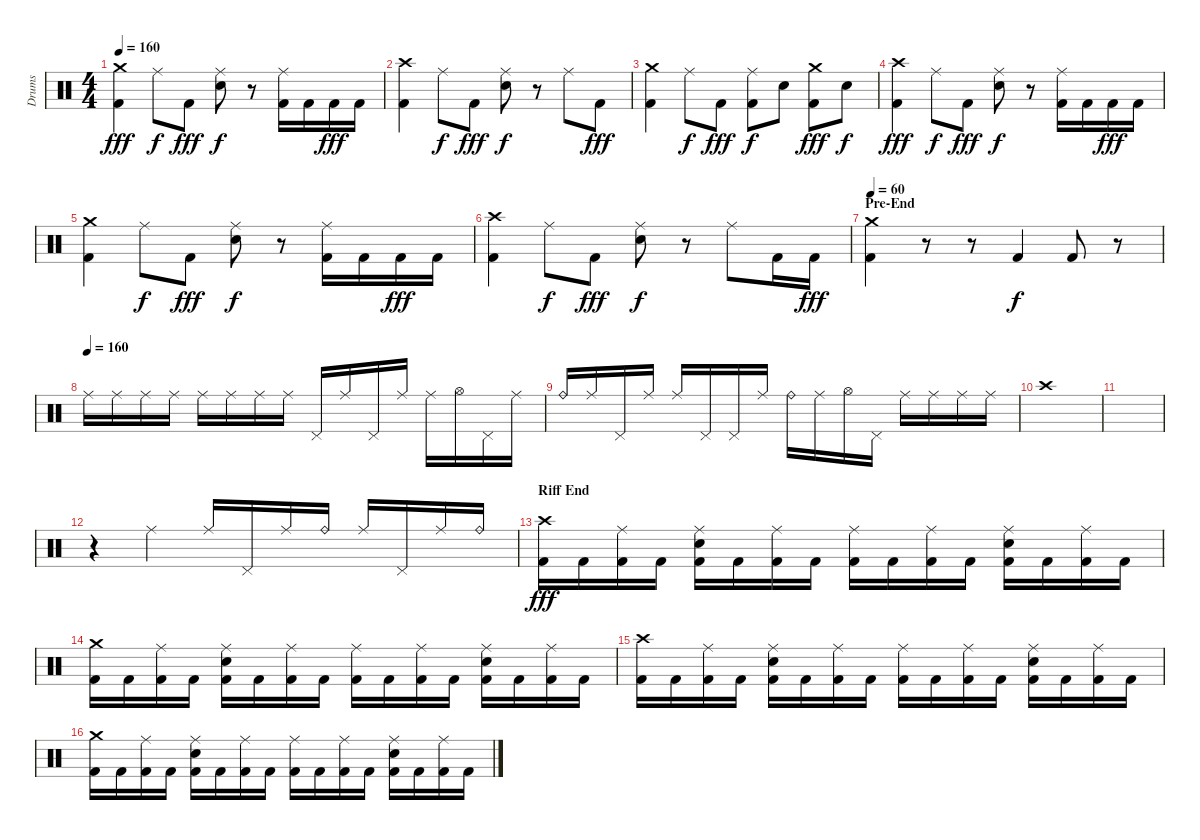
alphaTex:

\track ("Drums" "Drums") {instrument percussion}
\staff {score}
\articulation defaults
\ts (4 4)
\tempo 160
\clef neutral
\ks c
("Crash medium (hit)" "Kick (hit) 2").4{dy fff} "Ride (middle)".8{dy f} "Kick (hit) 2".8{dy fff} ("Ride (middle)" "Electric Snare (hit)").8{dy f} r.8 ("Ride (middle)" "Kick (hit) 2").16 "Kick (hit) 2".16 "Kick (hit) 2".16{dy fff} "Kick (hit) 2".16 |
("Crash high (hit)" "Kick (hit) 2").4 "Ride (middle)".8{dy f} "Kick (hit) 2".8{dy fff} ("Ride (middle)" "Electric Snare (hit)").8{dy f} r.8 "Ride (middle)".8 "Kick (hit) 2".8{dy fff} |
("Crash medium (hit)" "Kick (hit) 2").4 "Ride (middle)".8{dy f} "Kick (hit) 2".8{dy fff} ("Ride (middle)" "Kick (hit) 2").8{dy f} "Electric Snare (hit)".8 ("Crash medium (hit)" "Kick (hit) 2").8{dy fff} "Electric Snare (hit)".8{dy f} |
("Crash high (hit)" "Kick (hit) 2").4{dy fff} "Ride (middle)".8{dy f} "Kick (hit) 2".8{dy fff} ("Ride (middle)" "Electric Snare (hit)").8{dy f} r.8 ("Ride (middle)" "Kick (hit) 2").16 "Kick (hit) 2".16 "Kick (hit) 2".16{dy fff} "Kick (hit) 2".16 |
("Crash medium (hit)" "Kick (hit) 2").4 "Ride (middle)".8{dy f} "Kick (hit) 2".8{dy fff} ("Ride (middle)" "Electric Snare (hit)").8{dy f} r.8 ("Ride (middle)" "Kick (hit) 2").16 "Kick (hit) 2".16 "Kick (hit) 2".16{dy fff} "Kick (hit) 2".16 |
("Crash high (hit)" "Kick (hit) 2").4 "Ride (middle)".8{dy f} "Kick (hit) 2".8{dy fff} ("Ride (middle)" "Electric Snare (hit)").8{dy f} r.8 "Ride (middle)".8 "Kick (hit) 2".16 "Kick (hit) 2".16{dy fff} |
\section ("" "Pre-End")
\tempo 60
("Crash medium (hit)" "Kick (hit) 2").4 r.8 r.8 "Kick (hit) 2".4{dy f} "Kick (hit) 2".8 r.8{volume 0} |
\tempo (160)
"Ride (middle)".16{volume 12} "Ride (middle)".16 "Ride (middle)".16 "Ride (middle)".16 "Ride (middle)".16 "Ride (middle)".16 "Ride (middle)".16 "Ride (middle)".16 "Pedal Hi-Hat (hit)".16 "Ride (middle)".16 "Pedal Hi-Hat (hit)".16 "Ride (middle)".16 "Ride (middle)".16 "Hi-Hat (open)".16 "Pedal Hi-Hat (hit)".16 "Ride (middle)".16 |
"Ride (bell)".16 "Ride (middle)".16 "Pedal Hi-Hat (hit)".16 "Ride (middle)".16 "Ride (middle)".16 "Pedal Hi-Hat (hit)".16 "Pedal Hi-Hat (hit)".16 "Ride (middle)".16 "Ride (bell)".16 "Ride (middle)".16 "Hi-Hat (open)".16 "Pedal Hi-Hat (hit)".16 "Ride (middle)".16 "Ride (middle)".16 "Ride (middle)".16 "Ride (middle)".16 |
"Crash high (hit)".1 |
|
r.4 "Ride (middle)".4 "Ride (middle)".16 "Pedal Hi-Hat (hit)".16 "Ride (middle)".16 "Ride (bell)".16 "Ride (middle)".16 "Pedal Hi-Hat (hit)".16 "Ride (middle)".16 "Ride (bell)".16 |
\section ("" "Riff End")
("Crash high (hit)" "Kick (hit) 2").16{dy fff} "Kick (hit) 2".16 ("Ride (middle)" "Kick (hit) 2").16 "Kick (hit) 2".16 ("Ride (middle)" "Electric Snare (hit)" "Kick (hit) 2").16 "Kick (hit) 2".16 ("Ride (middle)" "Kick (hit) 2").16 "Kick (hit) 2".16 ("Ride (middle)" "Kick (hit) 2").16 "Kick (hit) 2".16 ("Ride (middle)" "Kick (hit) 2").16 "Kick (hit) 2".16 ("Ride (middle)" "Electric Snare (hit)" "Kick (hit) 2").16 "Kick (hit) 2".16 ("Ride (middle)" "Kick (hit) 2").16 "Kick (hit) 2".16 |
("Crash medium (hit)" "Kick (hit) 2").16 "Kick (hit) 2".16 ("Ride (middle)" "Kick (hit) 2").16 "Kick (hit) 2".16 ("Ride (middle)" "Electric Snare (hit)" "Kick (hit) 2").16 "Kick (hit) 2".16 ("Ride (middle)" "Kick (hit) 2").16 "Kick (hit) 2".16 ("Ride (middle)" "Kick (hit) 2").16 "Kick (hit) 2".16 ("Ride (middle)" "Kick (hit) 2").16 "Kick (hit) 2".16 ("Ride (middle)" "Electric Snare (hit)" "Kick (hit) 2").16 "Kick (hit) 2".16 ("Ride (middle)" "Kick (hit) 2").16 "Kick (hit) 2".16 |
("Crash high (hit)" "Kick (hit) 2").16 "Kick (hit) 2".16 ("Ride (middle)" "Kick (hit) 2").16 "Kick (hit) 2".16 ("Ride (middle)" "Electric Snare (hit)" "Kick (hit) 2").16 "Kick (hit) 2".16 ("Ride (middle)" "Kick (hit) 2").16 "Kick (hit) 2".16 ("Ride (middle)" "Kick (hit) 2").16 "Kick (hit) 2".16 ("Ride (middle)" "Kick (hit) 2").16 "Kick (hit) 2".16 ("Ride (middle)" "Electric Snare (hit)" "Kick (hit) 2").16 "Kick (hit) 2".16 ("Ride (middle)" "Kick (hit) 2").16 "Kick (hit) 2".16 |
("Crash medium (hit)" "Kick (hit) 2").16 "Kick (hit) 2".16 ("Ride (middle)" "Kick (hit) 2").16 "Kick (hit) 2".16 ("Ride (middle)" "Electric Snare (hit)" "Kick (hit) 2").16 "Kick (hit) 2".16 ("Ride (middle)" "Kick (hit) 2").16 "Kick (hit) 2".16 ("Ride (middle)" "Kick (hit) 2").16 "Kick (hit) 2".16 ("Ride (middle)" "Kick (hit) 2").16 "Kick (hit) 2".16 ("Ride (middle)" "Electric Snare (hit)" "Kick (hit) 2").16 "Kick (hit) 2".16 ("Ride (middle)" "Kick (hit) 2").16 "Kick (hit) 2".16
